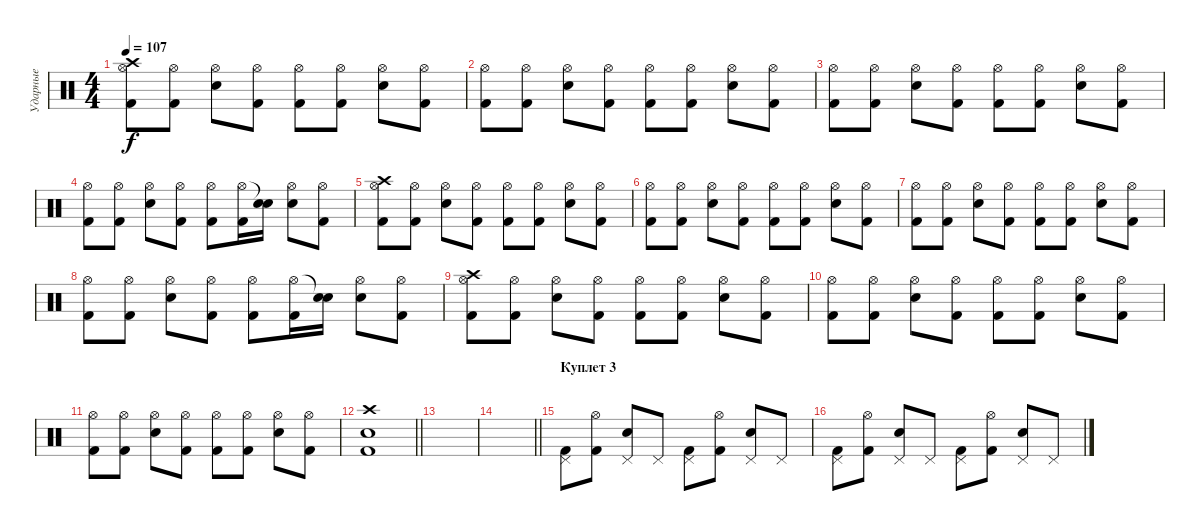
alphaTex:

\track ("Ударные" "Ударные") {instrument percussion}
\staff {score}
\articulation defaults
\ts (4 4)
\tempo 107
\clef neutral
\ks c
("Kick (hit) 2" "Crash high (hit)" "Hi-Hat (open)").8{dy f} ("Kick (hit) 2" "Hi-Hat (open)").8 ("Snare (hit) 2" "Hi-Hat (open)").8 ("Kick (hit) 2" "Hi-Hat (open)").8 ("Kick (hit) 2" "Hi-Hat (open)").8 ("Kick (hit) 2" "Hi-Hat (open)").8 ("Snare (hit) 2" "Hi-Hat (open)").8 ("Kick (hit) 2" "Hi-Hat (open)").8 |
("Kick (hit) 2" "Hi-Hat (open)").8 ("Kick (hit) 2" "Hi-Hat (open)").8 ("Snare (hit) 2" "Hi-Hat (open)").8 ("Kick (hit) 2" "Hi-Hat (open)").8 ("Kick (hit) 2" "Hi-Hat (open)").8 ("Kick (hit) 2" "Hi-Hat (open)").8 ("Snare (hit) 2" "Hi-Hat (open)").8 ("Kick (hit) 2" "Hi-Hat (open)").8 |
("Kick (hit) 2" "Hi-Hat (open)").8 ("Kick (hit) 2" "Hi-Hat (open)").8 ("Snare (hit) 2" "Hi-Hat (open)").8 ("Kick (hit) 2" "Hi-Hat (open)").8 ("Kick (hit) 2" "Hi-Hat (open)").8 ("Kick (hit) 2" "Hi-Hat (open)").8 ("Snare (hit) 2" "Hi-Hat (open)").8 ("Kick (hit) 2" "Hi-Hat (open)").8 |
("Kick (hit) 2" "Hi-Hat (open)").8 ("Kick (hit) 2" "Hi-Hat (open)").8 ("Snare (hit) 2" "Hi-Hat (open)").8 ("Kick (hit) 2" "Hi-Hat (open)").8 ("Kick (hit) 2" "Hi-Hat (open)").8 ("Kick (hit) 2" "Hi-Hat (open)").16 ("Snare (hit) 2" "Snare (hit)"{t}).16 ("Snare (hit) 2" "Hi-Hat (open)").8 ("Kick (hit) 2" "Hi-Hat (open)").8 |
("Kick (hit) 2" "Crash high (hit)" "Hi-Hat (open)").8 ("Kick (hit) 2" "Hi-Hat (open)").8 ("Snare (hit) 2" "Hi-Hat (open)").8 ("Kick (hit) 2" "Hi-Hat (open)").8 ("Kick (hit) 2" "Hi-Hat (open)").8 ("Kick (hit) 2" "Hi-Hat (open)").8 ("Snare (hit) 2" "Hi-Hat (open)").8 ("Kick (hit) 2" "Hi-Hat (open)").8 |
("Kick (hit) 2" "Hi-Hat (open)").8 ("Kick (hit) 2" "Hi-Hat (open)").8 ("Snare (hit) 2" "Hi-Hat (open)").8 ("Kick (hit) 2" "Hi-Hat (open)").8 ("Kick (hit) 2" "Hi-Hat (open)").8 ("Kick (hit) 2" "Hi-Hat (open)").8 ("Snare (hit) 2" "Hi-Hat (open)").8 ("Kick (hit) 2" "Hi-Hat (open)").8 |
("Kick (hit) 2" "Hi-Hat (open)").8 ("Kick (hit) 2" "Hi-Hat (open)").8 ("Snare (hit) 2" "Hi-Hat (open)").8 ("Kick (hit) 2" "Hi-Hat (open)").8 ("Kick (hit) 2" "Hi-Hat (open)").8 ("Kick (hit) 2" "Hi-Hat (open)").8 ("Snare (hit) 2" "Hi-Hat (open)").8 ("Kick (hit) 2" "Hi-Hat (open)").8 |
("Kick (hit) 2" "Hi-Hat (open)").8 ("Kick (hit) 2" "Hi-Hat (open)").8 ("Snare (hit) 2" "Hi-Hat (open)").8 ("Kick (hit) 2" "Hi-Hat (open)").8 ("Kick (hit) 2" "Hi-Hat (open)").8 ("Kick (hit) 2" "Hi-Hat (open)").16 ("Snare (hit) 2" "Snare (hit)"{t}).16 ("Snare (hit) 2" "Hi-Hat (open)").8 ("Kick (hit) 2" "Hi-Hat (open)").8 |
("Kick (hit) 2" "Crash high (hit)" "Hi-Hat (open)").8 ("Kick (hit) 2" "Hi-Hat (open)").8 ("Snare (hit) 2" "Hi-Hat (open)").8 ("Kick (hit) 2" "Hi-Hat (open)").8 ("Kick (hit) 2" "Hi-Hat (open)").8 ("Kick (hit) 2" "Hi-Hat (open)").8 ("Snare (hit) 2" "Hi-Hat (open)").8 ("Kick (hit) 2" "Hi-Hat (open)").8 |
("Kick (hit) 2" "Hi-Hat (open)").8 ("Kick (hit) 2" "Hi-Hat (open)").8 ("Snare (hit) 2" "Hi-Hat (open)").8 ("Kick (hit) 2" "Hi-Hat (open)").8 ("Kick (hit) 2" "Hi-Hat (open)").8 ("Kick (hit) 2" "Hi-Hat (open)").8 ("Snare (hit) 2" "Hi-Hat (open)").8 ("Kick (hit) 2" "Hi-Hat (open)").8 |
("Kick (hit) 2" "Hi-Hat (open)").8 ("Kick (hit) 2" "Hi-Hat (open)").8 ("Snare (hit) 2" "Hi-Hat (open)").8 ("Kick (hit) 2" "Hi-Hat (open)").8 ("Kick (hit) 2" "Hi-Hat (open)").8 ("Kick (hit) 2" "Hi-Hat (open)").8 ("Snare (hit) 2" "Hi-Hat (open)").8 ("Kick (hit) 2" "Hi-Hat (open)").8 |
\barLineRight lightlight
("Kick (hit) 2" "Snare (hit) 2" "Crash high (hit)").1 |
|
\barLineRight lightlight
|
\section ("" "Куплет 3")
("Kick (hit) 2" "Pedal Hi-Hat (hit)").8 ("Kick (hit) 2" "Hi-Hat (open)").8 ("Pedal Hi-Hat (hit)" "Snare (hit) 2").8 "Pedal Hi-Hat (hit)".8 ("Kick (hit) 2" "Pedal Hi-Hat (hit)").8 ("Kick (hit) 2" "Hi-Hat (open)").8 ("Pedal Hi-Hat (hit)" "Snare (hit) 2").8 "Pedal Hi-Hat (hit)".8 |
("Kick (hit) 2" "Pedal Hi-Hat (hit)").8 ("Kick (hit) 2" "Hi-Hat (open)").8 ("Pedal Hi-Hat (hit)" "Snare (hit) 2").8 "Pedal Hi-Hat (hit)".8 ("Kick (hit) 2" "Pedal Hi-Hat (hit)").8 ("Kick (hit) 2" "Hi-Hat (open)").8 ("Pedal Hi-Hat (hit)" "Snare (hit) 2").8 "Pedal Hi-Hat (hit)".8
